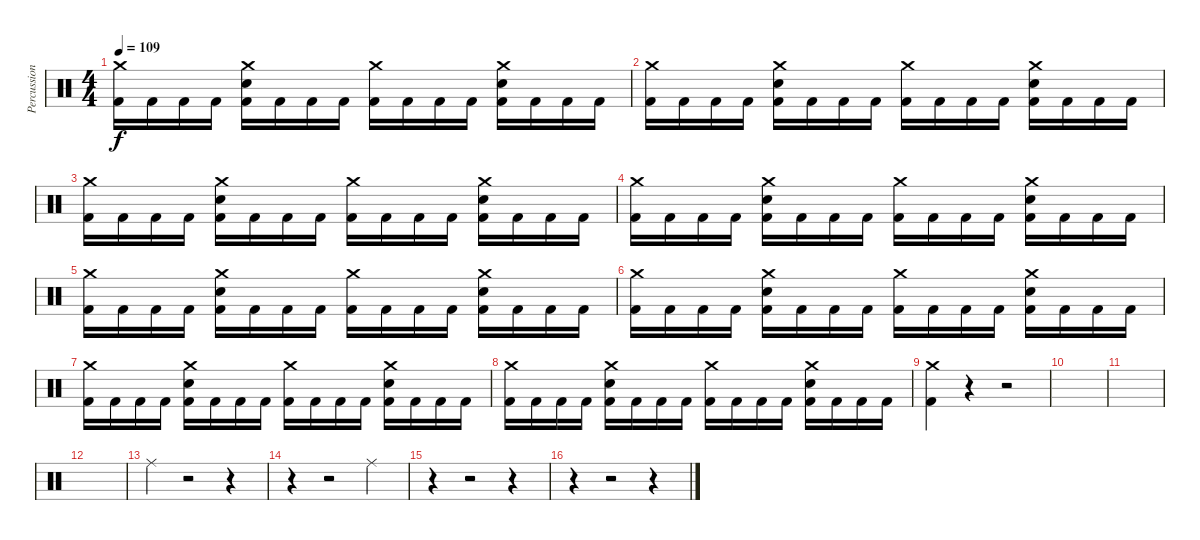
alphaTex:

\track ("Percussion" "Percussion") {instrument percussion}
\staff {score}
\articulation defaults
\ts (4 4)
\tempo 109
\clef neutral
\ks c
("Crash medium (hit)" "Kick (hit) 2").16{dy f} "Kick (hit) 2".16 "Kick (hit) 2".16 "Kick (hit) 2".16 ("Crash medium (hit)" "Electric Snare (hit)" "Kick (hit) 2").16 "Kick (hit) 2".16 "Kick (hit) 2".16 "Kick (hit) 2".16 ("Crash medium (hit)" "Kick (hit) 2").16 "Kick (hit) 2".16 "Kick (hit) 2".16 "Kick (hit) 2".16 ("Crash medium (hit)" "Electric Snare (hit)" "Kick (hit) 2").16 "Kick (hit) 2".16 "Kick (hit) 2".16 "Kick (hit) 2".16 |
("Crash medium (hit)" "Kick (hit) 2").16 "Kick (hit) 2".16 "Kick (hit) 2".16 "Kick (hit) 2".16 ("Crash medium (hit)" "Electric Snare (hit)" "Kick (hit) 2").16 "Kick (hit) 2".16 "Kick (hit) 2".16 "Kick (hit) 2".16 ("Crash medium (hit)" "Kick (hit) 2").16 "Kick (hit) 2".16 "Kick (hit) 2".16 "Kick (hit) 2".16 ("Crash medium (hit)" "Electric Snare (hit)" "Kick (hit) 2").16 "Kick (hit) 2".16 "Kick (hit) 2".16 "Kick (hit) 2".16 |
("Crash medium (hit)" "Kick (hit) 2").16 "Kick (hit) 2".16 "Kick (hit) 2".16 "Kick (hit) 2".16 ("Crash medium (hit)" "Electric Snare (hit)" "Kick (hit) 2").16 "Kick (hit) 2".16 "Kick (hit) 2".16 "Kick (hit) 2".16 ("Crash medium (hit)" "Kick (hit) 2").16 "Kick (hit) 2".16 "Kick (hit) 2".16 "Kick (hit) 2".16 ("Crash medium (hit)" "Electric Snare (hit)" "Kick (hit) 2").16 "Kick (hit) 2".16 "Kick (hit) 2".16 "Kick (hit) 2".16 |
("Crash medium (hit)" "Kick (hit) 2").16 "Kick (hit) 2".16 "Kick (hit) 2".16 "Kick (hit) 2".16 ("Crash medium (hit)" "Electric Snare (hit)" "Kick (hit) 2").16 "Kick (hit) 2".16 "Kick (hit) 2".16 "Kick (hit) 2".16 ("Crash medium (hit)" "Kick (hit) 2").16 "Kick (hit) 2".16 "Kick (hit) 2".16 "Kick (hit) 2".16 ("Crash medium (hit)" "Electric Snare (hit)" "Kick (hit) 2").16 "Kick (hit) 2".16 "Kick (hit) 2".16 "Kick (hit) 2".16 |
("Crash medium (hit)" "Kick (hit) 2").16 "Kick (hit) 2".16 "Kick (hit) 2".16 "Kick (hit) 2".16 ("Crash medium (hit)" "Electric Snare (hit)" "Kick (hit) 2").16 "Kick (hit) 2".16 "Kick (hit) 2".16 "Kick (hit) 2".16 ("Crash medium (hit)" "Kick (hit) 2").16 "Kick (hit) 2".16 "Kick (hit) 2".16 "Kick (hit) 2".16 ("Crash medium (hit)" "Electric Snare (hit)" "Kick (hit) 2").16 "Kick (hit) 2".16 "Kick (hit) 2".16 "Kick (hit) 2".16 |
("Crash medium (hit)" "Kick (hit) 2").16 "Kick (hit) 2".16 "Kick (hit) 2".16 "Kick (hit) 2".16 ("Crash medium (hit)" "Electric Snare (hit)" "Kick (hit) 2").16 "Kick (hit) 2".16 "Kick (hit) 2".16 "Kick (hit) 2".16 ("Crash medium (hit)" "Kick (hit) 2").16 "Kick (hit) 2".16 "Kick (hit) 2".16 "Kick (hit) 2".16 ("Crash medium (hit)" "Electric Snare (hit)" "Kick (hit) 2").16 "Kick (hit) 2".16 "Kick (hit) 2".16 "Kick (hit) 2".16 |
("Crash medium (hit)" "Kick (hit) 2").16 "Kick (hit) 2".16 "Kick (hit) 2".16 "Kick (hit) 2".16 ("Crash medium (hit)" "Electric Snare (hit)" "Kick (hit) 2").16 "Kick (hit) 2".16 "Kick (hit) 2".16 "Kick (hit) 2".16 ("Crash medium (hit)" "Kick (hit) 2").16 "Kick (hit) 2".16 "Kick (hit) 2".16 "Kick (hit) 2".16 ("Crash medium (hit)" "Electric Snare (hit)" "Kick (hit) 2").16 "Kick (hit) 2".16 "Kick (hit) 2".16 "Kick (hit) 2".16 |
("Crash medium (hit)" "Kick (hit) 2").16 "Kick (hit) 2".16 "Kick (hit) 2".16 "Kick (hit) 2".16 ("Crash medium (hit)" "Electric Snare (hit)" "Kick (hit) 2").16 "Kick (hit) 2".16 "Kick (hit) 2".16 "Kick (hit) 2".16 ("Crash medium (hit)" "Kick (hit) 2").16 "Kick (hit) 2".16 "Kick (hit) 2".16 "Kick (hit) 2".16 ("Crash medium (hit)" "Electric Snare (hit)" "Kick (hit) 2").16 "Kick (hit) 2".16 "Kick (hit) 2".16 "Kick (hit) 2".16 |
("Crash medium (hit)" "Kick (hit) 2").4 r.4 r.2 |
|
|
|
"Ride (middle)".4 r.2 r.4 |
r.4 r.2 "Ride (middle)".4 |
r.4 r.2 r.4 |
r.4 r.2 r.4
